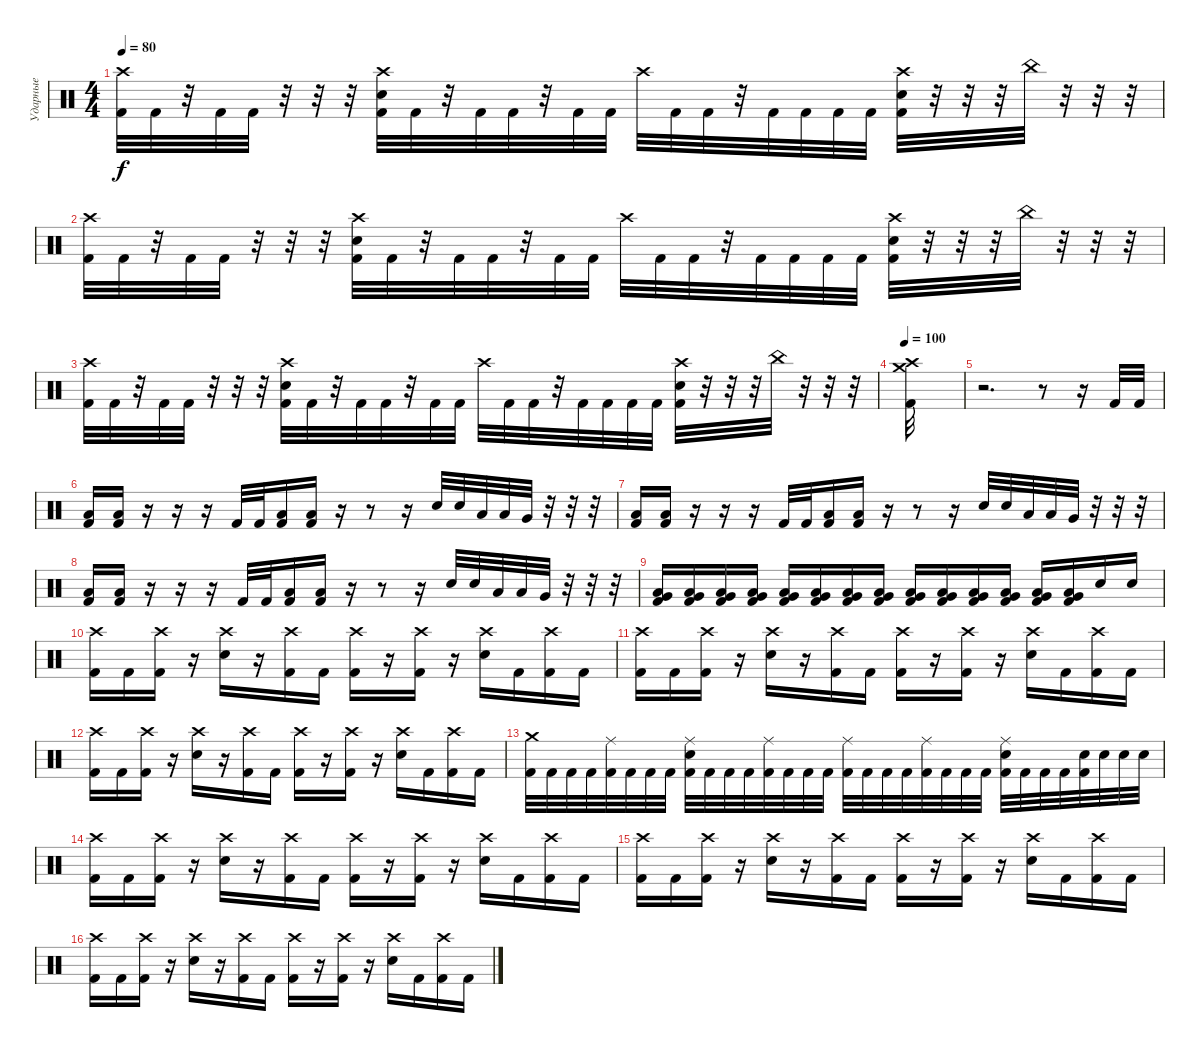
\track ("Ударные" "Ударные") {instrument percussion}
\staff {score}
\articulation defaults
\ts (4 4)
\tempo 80
\clef neutral
\ks c
("Crash high (hit)" "Kick (hit) 2").32{dy f} "Kick (hit) 2".32 r.32 "Kick (hit) 2".32 "Kick (hit) 2".32 r.32 r.32 r.32 ("Crash high (hit)" "Electric Snare (hit)" "Kick (hit) 2").32 "Kick (hit) 2".32 r.32 "Kick (hit) 2".32 "Kick (hit) 2".32 r.32 "Kick (hit) 2".32 "Kick (hit) 2".32 "Crash high (hit)".32 "Kick (hit) 2".32 "Kick (hit) 2".32 r.32 "Kick (hit) 2".32 "Kick (hit) 2".32 "Kick (hit) 2".32 "Kick (hit) 2".32 ("Crash high (hit)" "Electric Snare (hit)" "Kick (hit) 2").32 r.32 r.32 r.32 "China (hit)".32 r.32 r.32 r.32 |
("Crash high (hit)" "Kick (hit) 2").32 "Kick (hit) 2".32 r.32 "Kick (hit) 2".32 "Kick (hit) 2".32 r.32 r.32 r.32 ("Crash high (hit)" "Electric Snare (hit)" "Kick (hit) 2").32 "Kick (hit) 2".32 r.32 "Kick (hit) 2".32 "Kick (hit) 2".32 r.32 "Kick (hit) 2".32 "Kick (hit) 2".32 "Crash high (hit)".32 "Kick (hit) 2".32 "Kick (hit) 2".32 r.32 "Kick (hit) 2".32 "Kick (hit) 2".32 "Kick (hit) 2".32 "Kick (hit) 2".32 ("Crash high (hit)" "Electric Snare (hit)" "Kick (hit) 2").32 r.32 r.32 r.32 "China (hit)".32 r.32 r.32 r.32 |
("Crash high (hit)" "Kick (hit) 2").32 "Kick (hit) 2".32 r.32 "Kick (hit) 2".32 "Kick (hit) 2".32 r.32 r.32 r.32 ("Crash high (hit)" "Electric Snare (hit)" "Kick (hit) 2").32 "Kick (hit) 2".32 r.32 "Kick (hit) 2".32 "Kick (hit) 2".32 r.32 "Kick (hit) 2".32 "Kick (hit) 2".32 "Crash high (hit)".32 "Kick (hit) 2".32 "Kick (hit) 2".32 r.32 "Kick (hit) 2".32 "Kick (hit) 2".32 "Kick (hit) 2".32 "Kick (hit) 2".32 ("Crash high (hit)" "Electric Snare (hit)" "Kick (hit) 2").32 r.32 r.32 r.32 "China (hit)".32 r.32 r.32 r.32 |
\tempo 100
("Crash high (hit)" "Crash medium (hit)" "Kick (hit) 2").32 |
r.2{d} r.8 r.16 "Kick (hit) 2".32 "Kick (hit) 2".32 |
("Low Floor Tom (hit)" "Kick (hit) 2").16 ("Low Floor Tom (hit)" "Kick (hit) 2").16 r.16 r.16 r.16 "Kick (hit) 2".32 "Kick (hit) 2".32 ("Low Floor Tom (hit)" "Kick (hit) 2").16 ("Low Floor Tom (hit)" "Kick (hit) 2").16 r.16 r.8 r.16 "Snare (hit) 2".32 "Snare (hit) 2".32 "Low Tom (hit)".32 "Low Tom (hit)".32 "Very Low Tom (hit)".32 r.32 r.32 r.32 |
("Low Floor Tom (hit)" "Kick (hit) 2").16 ("Low Floor Tom (hit)" "Kick (hit) 2").16 r.16 r.16 r.16 "Kick (hit) 2".32 "Kick (hit) 2".32 ("Low Floor Tom (hit)" "Kick (hit) 2").16 ("Low Floor Tom (hit)" "Kick (hit) 2").16 r.16 r.8 r.16 "Snare (hit) 2".32 "Snare (hit) 2".32 "Low Tom (hit)".32 "Low Tom (hit)".32 "Very Low Tom (hit)".32 r.32 r.32 r.32 |
("Low Floor Tom (hit)" "Kick (hit) 2").16 ("Low Floor Tom (hit)" "Kick (hit) 2").16 r.16 r.16 r.16 "Kick (hit) 2".32 "Kick (hit) 2".32 ("Low Floor Tom (hit)" "Kick (hit) 2").16 ("Low Floor Tom (hit)" "Kick (hit) 2").16 r.16 r.8 r.16 "Snare (hit) 2".32 "Snare (hit) 2".32 "Low Tom (hit)".32 "Low Tom (hit)".32 "Very Low Tom (hit)".32 r.32 r.32 r.32 |
("Very Low Tom (hit)" "Low Floor Tom (hit)" "Kick (hit) 2").16 ("Very Low Tom (hit)" "Low Floor Tom (hit)" "Kick (hit) 2").16 ("Very Low Tom (hit)" "Low Floor Tom (hit)" "Kick (hit) 2").16 ("Very Low Tom (hit)" "Low Floor Tom (hit)" "Kick (hit) 2").16 ("Very Low Tom (hit)" "Low Floor Tom (hit)" "Kick (hit) 2").16 ("Very Low Tom (hit)" "Low Floor Tom (hit)" "Kick (hit) 2").16 ("Very Low Tom (hit)" "Low Floor Tom (hit)" "Kick (hit) 2").16 ("Very Low Tom (hit)" "Low Floor Tom (hit)" "Kick (hit) 2").16 ("Very Low Tom (hit)" "Low Floor Tom (hit)" "Kick (hit) 2").16 ("Very Low Tom (hit)" "Low Floor Tom (hit)" "Kick (hit) 2").16 ("Very Low Tom (hit)" "Low Floor Tom (hit)" "Kick (hit) 2").16 ("Very Low Tom (hit)" "Low Floor Tom (hit)" "Kick (hit) 2").16 ("Very Low Tom (hit)" "Low Floor Tom (hit)" "Kick (hit) 2").16 ("Very Low Tom (hit)" "Low Floor Tom (hit)" "Kick (hit) 2").16 "Electric Snare (hit)".16 "Electric Snare (hit)".16 |
("Crash high (hit)" "Kick (hit) 2").16 "Kick (hit) 2".16 ("Crash high (hit)" "Kick (hit) 2").16 r.16 ("Crash high (hit)" "Electric Snare (hit)").16 r.16 ("Crash high (hit)" "Kick (hit) 2").16 "Kick (hit) 2".16 ("Crash high (hit)" "Kick (hit) 2").16 r.16 ("Crash high (hit)" "Kick (hit) 2").16 r.16 ("Crash high (hit)" "Electric Snare (hit)").16 "Kick (hit) 2".16 ("Crash high (hit)" "Kick (hit) 2").16 "Kick (hit) 2".16 |
("Crash high (hit)" "Kick (hit) 2").16 "Kick (hit) 2".16 ("Crash high (hit)" "Kick (hit) 2").16 r.16 ("Crash high (hit)" "Electric Snare (hit)").16 r.16 ("Crash high (hit)" "Kick (hit) 2").16 "Kick (hit) 2".16 ("Crash high (hit)" "Kick (hit) 2").16 r.16 ("Crash high (hit)" "Kick (hit) 2").16 r.16 ("Crash high (hit)" "Electric Snare (hit)").16 "Kick (hit) 2".16 ("Crash high (hit)" "Kick (hit) 2").16 "Kick (hit) 2".16 |
("Crash high (hit)" "Kick (hit) 2").16 "Kick (hit) 2".16 ("Crash high (hit)" "Kick (hit) 2").16 r.16 ("Crash high (hit)" "Electric Snare (hit)").16 r.16 ("Crash high (hit)" "Kick (hit) 2").16 "Kick (hit) 2".16 ("Crash high (hit)" "Kick (hit) 2").16 r.16 ("Crash high (hit)" "Kick (hit) 2").16 r.16 ("Crash high (hit)" "Electric Snare (hit)").16 "Kick (hit) 2".16 ("Crash high (hit)" "Kick (hit) 2").16 "Kick (hit) 2".16 |
("Crash medium (hit)" "Kick (hit) 2").32 "Kick (hit) 2".32 "Kick (hit) 2".32 "Kick (hit) 2".32 ("Ride (middle)" "Kick (hit) 2").32 "Kick (hit) 2".32 "Kick (hit) 2".32 "Kick (hit) 2".32 ("Ride (middle)" "Electric Snare (hit)" "Kick (hit) 2").32 "Kick (hit) 2".32 "Kick (hit) 2".32 "Kick (hit) 2".32 ("Ride (middle)" "Kick (hit) 2").32 "Kick (hit) 2".32 "Kick (hit) 2".32 "Kick (hit) 2".32 ("Ride (middle)" "Kick (hit) 2").32 "Kick (hit) 2".32 "Kick (hit) 2".32 "Kick (hit) 2".32 ("Ride (middle)" "Kick (hit) 2").32 "Kick (hit) 2".32 "Kick (hit) 2".32 "Kick (hit) 2".32 ("Ride (middle)" "Electric Snare (hit)" "Kick (hit) 2").32 "Kick (hit) 2".32 "Kick (hit) 2".32 "Kick (hit) 2".32 ("Electric Snare (hit)" "Kick (hit) 2").32 "Electric Snare (hit)".32 "Electric Snare (hit)".32 "Electric Snare (hit)".32 |
("Crash high (hit)" "Kick (hit) 2").16 "Kick (hit) 2".16 ("Crash high (hit)" "Kick (hit) 2").16 r.16 ("Crash high (hit)" "Electric Snare (hit)").16 r.16 ("Crash high (hit)" "Kick (hit) 2").16 "Kick (hit) 2".16 ("Crash high (hit)" "Kick (hit) 2").16 r.16 ("Crash high (hit)" "Kick (hit) 2").16 r.16 ("Crash high (hit)" "Electric Snare (hit)").16 "Kick (hit) 2".16 ("Crash high (hit)" "Kick (hit) 2").16 "Kick (hit) 2".16 |
("Crash high (hit)" "Kick (hit) 2").16 "Kick (hit) 2".16 ("Crash high (hit)" "Kick (hit) 2").16 r.16 ("Crash high (hit)" "Electric Snare (hit)").16 r.16 ("Crash high (hit)" "Kick (hit) 2").16 "Kick (hit) 2".16 ("Crash high (hit)" "Kick (hit) 2").16 r.16 ("Crash high (hit)" "Kick (hit) 2").16 r.16 ("Crash high (hit)" "Electric Snare (hit)").16 "Kick (hit) 2".16 ("Crash high (hit)" "Kick (hit) 2").16 "Kick (hit) 2".16 |
("Crash high (hit)" "Kick (hit) 2").16 "Kick (hit) 2".16 ("Crash high (hit)" "Kick (hit) 2").16 r.16 ("Crash high (hit)" "Electric Snare (hit)").16 r.16 ("Crash high (hit)" "Kick (hit) 2").16 "Kick (hit) 2".16 ("Crash high (hit)" "Kick (hit) 2").16 r.16 ("Crash high (hit)" "Kick (hit) 2").16 r.16 ("Crash high (hit)" "Electric Snare (hit)").16 "Kick (hit) 2".16 ("Crash high (hit)" "Kick (hit) 2").16 "Kick (hit) 2".16
